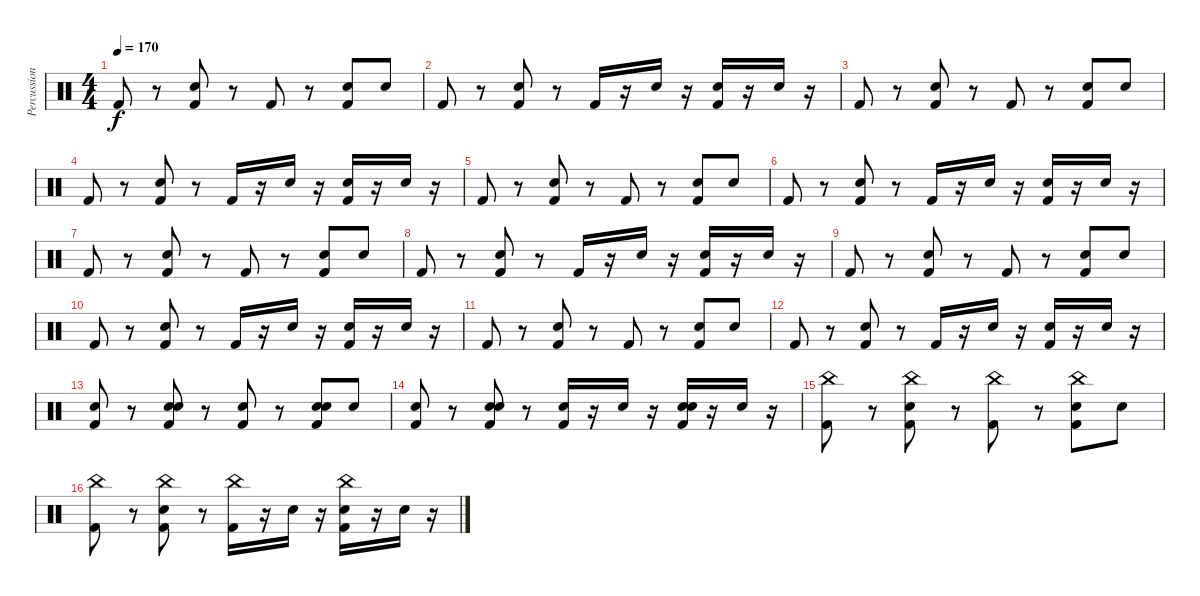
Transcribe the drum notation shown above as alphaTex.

\track ("Percussion" "Percussion") {instrument percussion}
\staff {score}
\articulation defaults
\ts (4 4)
\tempo 170
\clef neutral
\ks c "Kick (hit) 2".8{dy f}
r.8 ("Electric Snare (hit)" "Kick (hit) 2").8 r.8 "Kick (hit) 2".8 r.8 ("Electric Snare (hit)" "Kick (hit) 2").8 "Electric Snare (hit)".8 |
"Kick (hit) 2".8 r.8 ("Electric Snare (hit)" "Kick (hit) 2").8 r.8 "Kick (hit) 2".16 r.16 "Electric Snare (hit)".16 r.16 ("Electric Snare (hit)" "Kick (hit) 2").16 r.16 "Electric Snare (hit)".16 r.16 |
"Kick (hit) 2".8 r.8 ("Electric Snare (hit)" "Kick (hit) 2").8 r.8 "Kick (hit) 2".8 r.8 ("Electric Snare (hit)" "Kick (hit) 2").8 "Electric Snare (hit)".8 |
"Kick (hit) 2".8 r.8 ("Electric Snare (hit)" "Kick (hit) 2").8 r.8 "Kick (hit) 2".16 r.16 "Electric Snare (hit)".16 r.16 ("Electric Snare (hit)" "Kick (hit) 2").16 r.16 "Electric Snare (hit)".16 r.16 |
"Kick (hit) 2".8 r.8 ("Electric Snare (hit)" "Kick (hit) 2").8 r.8 "Kick (hit) 2".8 r.8 ("Electric Snare (hit)" "Kick (hit) 2").8 "Electric Snare (hit)".8 |
"Kick (hit) 2".8 r.8 ("Electric Snare (hit)" "Kick (hit) 2").8 r.8 "Kick (hit) 2".16 r.16 "Electric Snare (hit)".16 r.16 ("Electric Snare (hit)" "Kick (hit) 2").16 r.16 "Electric Snare (hit)".16 r.16 |
"Kick (hit) 2".8 r.8 ("Electric Snare (hit)" "Kick (hit) 2").8 r.8 "Kick (hit) 2".8 r.8 ("Electric Snare (hit)" "Kick (hit) 2").8 "Electric Snare (hit)".8 |
"Kick (hit) 2".8 r.8 ("Electric Snare (hit)" "Kick (hit) 2").8 r.8 "Kick (hit) 2".16 r.16 "Electric Snare (hit)".16 r.16 ("Electric Snare (hit)" "Kick (hit) 2").16 r.16 "Electric Snare (hit)".16 r.16 |
"Kick (hit) 2".8 r.8 ("Electric Snare (hit)" "Kick (hit) 2").8 r.8 "Kick (hit) 2".8 r.8 ("Electric Snare (hit)" "Kick (hit) 2").8 "Electric Snare (hit)".8 |
"Kick (hit) 2".8 r.8 ("Electric Snare (hit)" "Kick (hit) 2").8 r.8 "Kick (hit) 2".16 r.16 "Electric Snare (hit)".16 r.16 ("Electric Snare (hit)" "Kick (hit) 2").16 r.16 "Electric Snare (hit)".16 r.16 |
"Kick (hit) 2".8 r.8 ("Electric Snare (hit)" "Kick (hit) 2").8 r.8 "Kick (hit) 2".8 r.8 ("Electric Snare (hit)" "Kick (hit) 2").8 "Electric Snare (hit)".8 |
"Kick (hit) 2".8 r.8 ("Electric Snare (hit)" "Kick (hit) 2").8 r.8 "Kick (hit) 2".16 r.16 "Electric Snare (hit)".16 r.16 ("Electric Snare (hit)" "Kick (hit) 2").16 r.16 "Electric Snare (hit)".16 r.16 |
("Snare (hit) 2" "Kick (hit) 2").8 r.8 ("Snare (hit) 2" "Electric Snare (hit)" "Kick (hit) 2").8 r.8 ("Snare (hit) 2" "Kick (hit) 2").8 r.8 ("Snare (hit) 2" "Electric Snare (hit)" "Kick (hit) 2").8 "Electric Snare (hit)".8 |
("Snare (hit) 2" "Kick (hit) 2").8 r.8 ("Snare (hit) 2" "Electric Snare (hit)" "Kick (hit) 2").8 r.8 ("Snare (hit) 2" "Kick (hit) 2").16 r.16 "Electric Snare (hit)".16 r.16 ("Snare (hit) 2" "Electric Snare (hit)" "Kick (hit) 2").16 r.16 "Electric Snare (hit)".16 r.16 |
("China (hit)" "Kick (hit) 2").8 r.8 ("China (hit)" "Electric Snare (hit)" "Kick (hit) 2").8 r.8 ("China (hit)" "Kick (hit) 2").8 r.8 ("China (hit)" "Electric Snare (hit)" "Kick (hit) 2").8 "Electric Snare (hit)".8 |
("China (hit)" "Kick (hit) 2").8 r.8 ("China (hit)" "Electric Snare (hit)" "Kick (hit) 2").8 r.8 ("China (hit)" "Kick (hit) 2").16 r.16 "Electric Snare (hit)".16 r.16 ("China (hit)" "Electric Snare (hit)" "Kick (hit) 2").16 r.16 "Electric Snare (hit)".16 r.16
